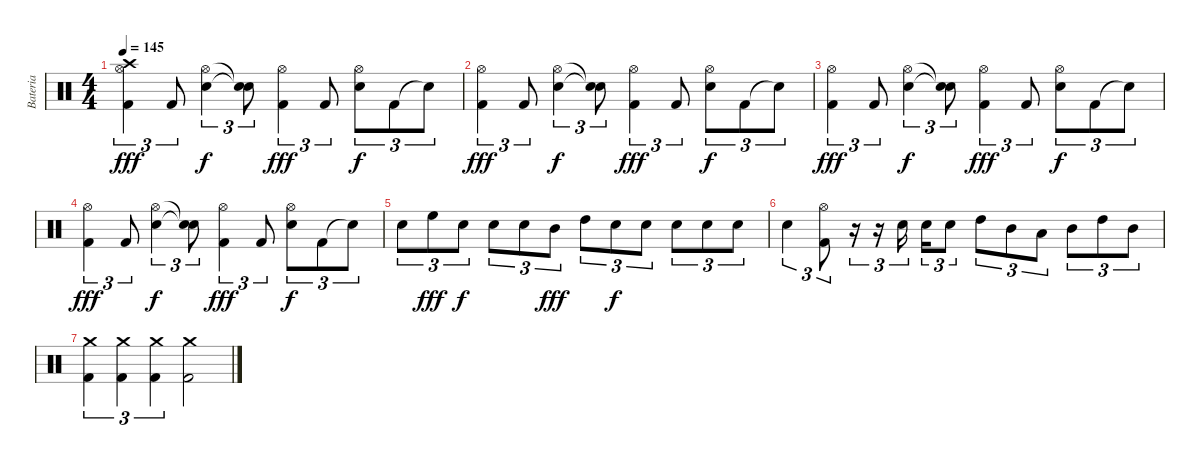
\track ("Bateria" "Bateria") {instrument percussion}
\staff {score}
\articulation defaults
\ts (4 4)
\tempo 145
\clef neutral
\ks c
("Hi-Hat (open)" "Kick (hit) 2" "Crash high (hit)").4{tu (3 2) dy fff} "Kick (hit) 2".8{tu (3 2)} ("Hi-Hat (open)" "Snare (hit) 2").4{tu (3 2) dy f} ("Snare (hit)"{t} "Snare (hit)"{t}).8{tu (3 2)} ("Hi-Hat (open)" "Kick (hit) 2").4{tu (3 2) dy fff} "Kick (hit) 2".8{tu (3 2)} ("Hi-Hat (open)" "Snare (hit) 2").8{tu (3 2) dy f} "Kick (hit) 2".8{tu (3 2)} "Snare (hit)"{t}.8{tu (3 2)} |
("Hi-Hat (open)" "Kick (hit) 2").4{tu (3 2) dy fff} "Kick (hit) 2".8{tu (3 2)} ("Hi-Hat (open)" "Snare (hit) 2").4{tu (3 2) dy f} ("Snare (hit)"{t} "Snare (hit)"{t}).8{tu (3 2)} ("Hi-Hat (open)" "Kick (hit) 2").4{tu (3 2) dy fff} "Kick (hit) 2".8{tu (3 2)} ("Hi-Hat (open)" "Snare (hit) 2").8{tu (3 2) dy f} "Kick (hit) 2".8{tu (3 2)} "Snare (hit)"{t}.8{tu (3 2)} |
("Hi-Hat (open)" "Kick (hit) 2").4{tu (3 2) dy fff} "Kick (hit) 2".8{tu (3 2)} ("Hi-Hat (open)" "Snare (hit) 2").4{tu (3 2) dy f} ("Snare (hit)"{t} "Snare (hit)"{t}).8{tu (3 2)} ("Hi-Hat (open)" "Kick (hit) 2").4{tu (3 2) dy fff} "Kick (hit) 2".8{tu (3 2)} ("Hi-Hat (open)" "Snare (hit) 2").8{tu (3 2) dy f} "Kick (hit) 2".8{tu (3 2)} "Snare (hit)"{t}.8{tu (3 2)} |
("Hi-Hat (open)" "Kick (hit) 2").4{tu (3 2) dy fff} "Kick (hit) 2".8{tu (3 2)} ("Hi-Hat (open)" "Snare (hit) 2").4{tu (3 2) dy f} ("Snare (hit)"{t} "Snare (hit)"{t}).8{tu (3 2)} ("Hi-Hat (open)" "Kick (hit) 2").4{tu (3 2) dy fff} "Kick (hit) 2".8{tu (3 2)} ("Hi-Hat (open)" "Snare (hit) 2").8{tu (3 2) dy f} "Kick (hit) 2".8{tu (3 2)} "Snare (hit)"{t}.8{tu (3 2)} |
"Snare (hit) 2".8{tu (3 2)} "High Floor Tom (hit)".8{tu (3 2) dy fff} "Snare (hit) 2".8{tu (3 2) dy f} "Snare (hit) 2".8{tu (3 2)} "Snare (hit) 2".8{tu (3 2)} "Mid Tom (hit)".8{tu (3 2) dy fff} "High Tom (hit)".8{tu (3 2)} "Snare (hit) 2".8{tu (3 2) dy f} "Snare (hit) 2".8{tu (3 2)} "Snare (hit) 2".8{tu (3 2)} "Snare (hit) 2".8{tu (3 2)} "Snare (hit) 2".8{tu (3 2)} |
"Snare (hit) 2".4{tu (3 2)} ("Kick (hit) 2" "Hi-Hat (open)").8{tu (3 2)} r.16{tu (3 2)} r.16{tu (3 2)} "Snare (hit) 2".16{tu (3 2)} "Snare (hit) 2".16{tu (3 2)} "Snare (hit) 2".8{tu (3 2)} "High Tom (hit)".8{tu (3 2)} "Mid Tom (hit)".8{tu (3 2)} "Low Tom (hit)".8{tu (3 2)} "Mid Tom (hit)".8{tu (3 2)} "High Tom (hit)".8{tu (3 2)} "Mid Tom (hit)".8{tu (3 2)} |
("Crash medium (hit)" "Kick (hit) 2").4{tu (3 2)} ("Crash medium (hit)" "Kick (hit) 2").4{tu (3 2)} ("Crash medium (hit)" "Kick (hit) 2").4{tu (3 2)} ("Crash medium (hit)" "Kick (hit) 2").2
